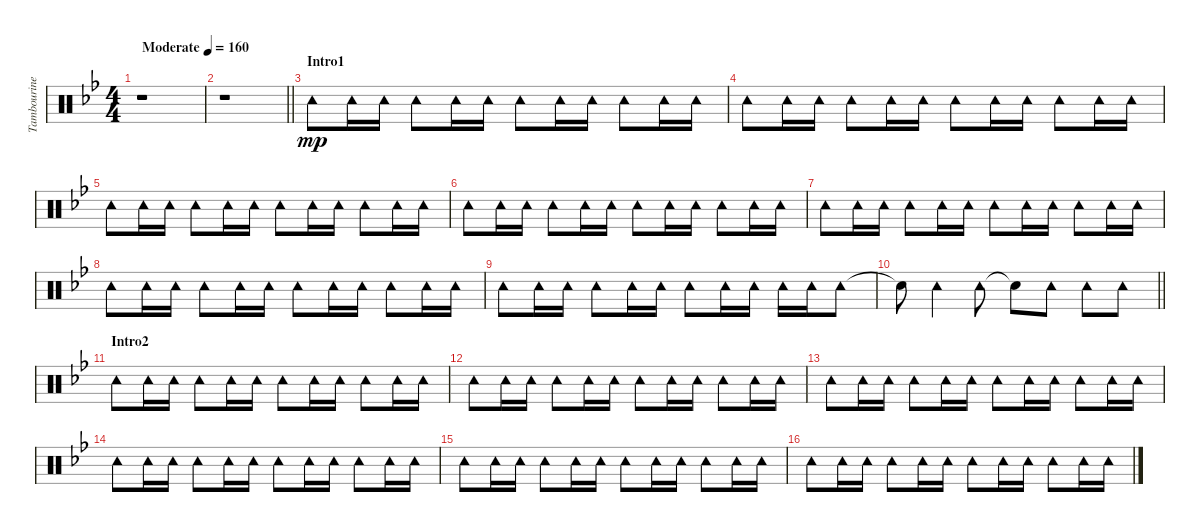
\track ("Tambourine" "Tambourine") {instrument percussion}
\staff {score}
\articulation defaults
\ts (4 4)
\tempo (160 "Moderate")
\clef neutral
\ks bb
r.1{dy mp} |
\barLineRight lightlight
r.1 |
\section ("" "Intro1")
"Tambourine (hit)".8 "Tambourine (hit)".16 "Tambourine (hit)".16 "Tambourine (hit)".8 "Tambourine (hit)".16 "Tambourine (hit)".16 "Tambourine (hit)".8 "Tambourine (hit)".16 "Tambourine (hit)".16 "Tambourine (hit)".8 "Tambourine (hit)".16 "Tambourine (hit)".16 |
"Tambourine (hit)".8 "Tambourine (hit)".16 "Tambourine (hit)".16 "Tambourine (hit)".8 "Tambourine (hit)".16 "Tambourine (hit)".16 "Tambourine (hit)".8 "Tambourine (hit)".16 "Tambourine (hit)".16 "Tambourine (hit)".8 "Tambourine (hit)".16 "Tambourine (hit)".16 |
"Tambourine (hit)".8 "Tambourine (hit)".16 "Tambourine (hit)".16 "Tambourine (hit)".8 "Tambourine (hit)".16 "Tambourine (hit)".16 "Tambourine (hit)".8 "Tambourine (hit)".16 "Tambourine (hit)".16 "Tambourine (hit)".8 "Tambourine (hit)".16 "Tambourine (hit)".16 |
"Tambourine (hit)".8 "Tambourine (hit)".16 "Tambourine (hit)".16 "Tambourine (hit)".8 "Tambourine (hit)".16 "Tambourine (hit)".16 "Tambourine (hit)".8 "Tambourine (hit)".16 "Tambourine (hit)".16 "Tambourine (hit)".8 "Tambourine (hit)".16 "Tambourine (hit)".16 |
"Tambourine (hit)".8 "Tambourine (hit)".16 "Tambourine (hit)".16 "Tambourine (hit)".8 "Tambourine (hit)".16 "Tambourine (hit)".16 "Tambourine (hit)".8 "Tambourine (hit)".16 "Tambourine (hit)".16 "Tambourine (hit)".8 "Tambourine (hit)".16 "Tambourine (hit)".16 |
"Tambourine (hit)".8 "Tambourine (hit)".16 "Tambourine (hit)".16 "Tambourine (hit)".8 "Tambourine (hit)".16 "Tambourine (hit)".16 "Tambourine (hit)".8 "Tambourine (hit)".16 "Tambourine (hit)".16 "Tambourine (hit)".8 "Tambourine (hit)".16 "Tambourine (hit)".16 |
"Tambourine (hit)".8 "Tambourine (hit)".16 "Tambourine (hit)".16 "Tambourine (hit)".8 "Tambourine (hit)".16 "Tambourine (hit)".16 "Tambourine (hit)".8 "Tambourine (hit)".16 "Tambourine (hit)".16 "Tambourine (hit)".16 "Tambourine (hit)".16 "Tambourine (hit)".8 |
\barLineRight lightlight "Snare (hit)"{t}.8 "Tambourine (hit)".4 "Tambourine (hit)".8 "Snare (hit)"{t}.8 "Tambourine (hit)".8 "Tambourine (hit)".8 "Tambourine (hit)".8
|
\section ("" "Intro2")
"Tambourine (hit)".8 "Tambourine (hit)".16 "Tambourine (hit)".16 "Tambourine (hit)".8 "Tambourine (hit)".16 "Tambourine (hit)".16 "Tambourine (hit)".8 "Tambourine (hit)".16 "Tambourine (hit)".16 "Tambourine (hit)".8 "Tambourine (hit)".16 "Tambourine (hit)".16 |
"Tambourine (hit)".8 "Tambourine (hit)".16 "Tambourine (hit)".16 "Tambourine (hit)".8 "Tambourine (hit)".16 "Tambourine (hit)".16 "Tambourine (hit)".8 "Tambourine (hit)".16 "Tambourine (hit)".16 "Tambourine (hit)".8 "Tambourine (hit)".16 "Tambourine (hit)".16 |
"Tambourine (hit)".8 "Tambourine (hit)".16 "Tambourine (hit)".16 "Tambourine (hit)".8 "Tambourine (hit)".16 "Tambourine (hit)".16 "Tambourine (hit)".8 "Tambourine (hit)".16 "Tambourine (hit)".16 "Tambourine (hit)".8 "Tambourine (hit)".16 "Tambourine (hit)".16 |
"Tambourine (hit)".8 "Tambourine (hit)".16 "Tambourine (hit)".16 "Tambourine (hit)".8 "Tambourine (hit)".16 "Tambourine (hit)".16 "Tambourine (hit)".8 "Tambourine (hit)".16 "Tambourine (hit)".16 "Tambourine (hit)".8 "Tambourine (hit)".16 "Tambourine (hit)".16 |
"Tambourine (hit)".8 "Tambourine (hit)".16 "Tambourine (hit)".16 "Tambourine (hit)".8 "Tambourine (hit)".16 "Tambourine (hit)".16 "Tambourine (hit)".8 "Tambourine (hit)".16 "Tambourine (hit)".16 "Tambourine (hit)".8 "Tambourine (hit)".16 "Tambourine (hit)".16 |
"Tambourine (hit)".8 "Tambourine (hit)".16 "Tambourine (hit)".16 "Tambourine (hit)".8 "Tambourine (hit)".16 "Tambourine (hit)".16 "Tambourine (hit)".8 "Tambourine (hit)".16 "Tambourine (hit)".16 "Tambourine (hit)".8 "Tambourine (hit)".16 "Tambourine (hit)".16
